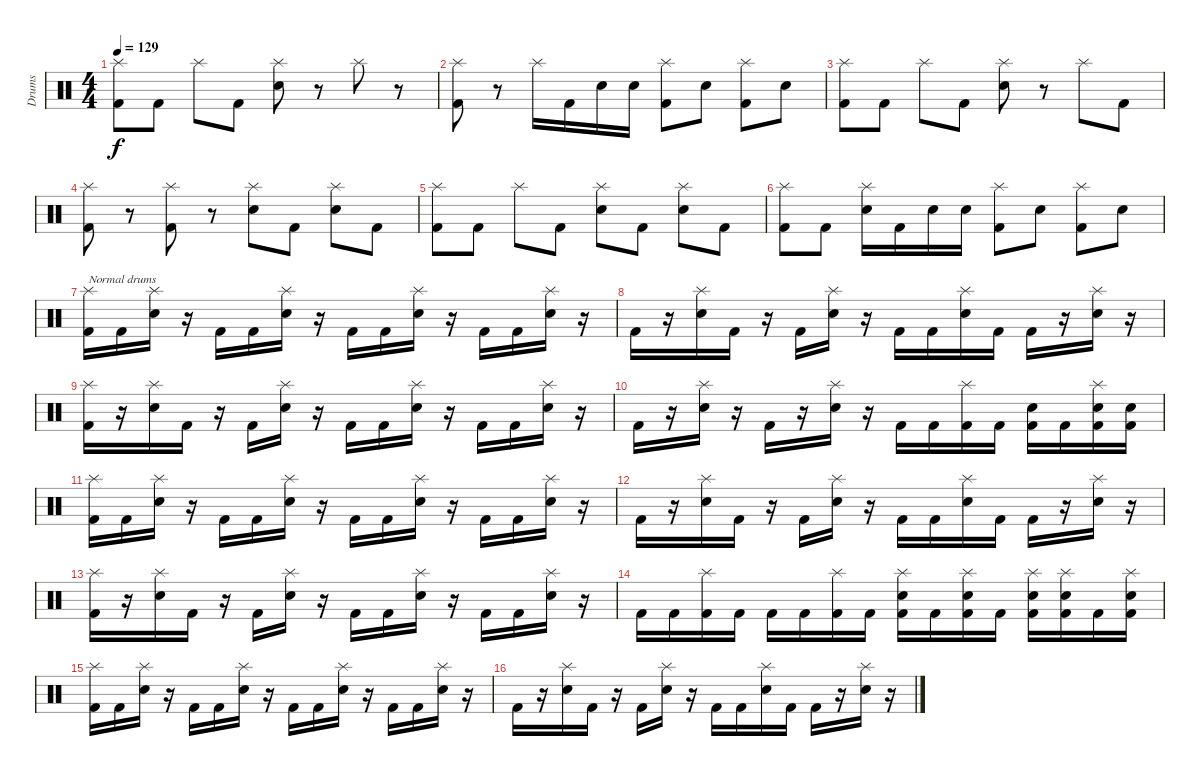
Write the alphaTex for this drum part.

\track ("Drums" "Drums") {instrument percussion}
\staff {score}
\articulation defaults
\ts (4 4)
\tempo 129
\clef neutral
\ks c
("Splash (hit)" "Kick (hit) 2").8{dy f} "Kick (hit) 2".8 "Splash (hit)".8 "Kick (hit) 2".8 ("Snare (hit) 2" "Splash (hit)").8 r.8 "Splash (hit)".8 r.8 |
("Splash (hit)" "Kick (hit) 2").8 r.8 "Splash (hit)".16 "Kick (hit) 2".16 "Snare (hit) 2".16 "Snare (hit) 2".16 ("Splash (hit)" "Kick (hit) 2").8 "Snare (hit) 2".8 ("Splash (hit)" "Kick (hit) 2").8 "Snare (hit) 2".8 |
("Splash (hit)" "Kick (hit) 2").8 "Kick (hit) 2".8 "Splash (hit)".8 "Kick (hit) 2".8 ("Snare (hit) 2" "Splash (hit)").8 r.8 "Splash (hit)".8 "Kick (hit) 2".8 |
("Splash (hit)" "Kick (hit) 2").8 r.8 ("Splash (hit)" "Kick (hit) 2").8 r.8 ("Snare (hit) 2" "Splash (hit)").8 "Kick (hit) 2".8 ("Snare (hit) 2" "Splash (hit)").8 "Kick (hit) 2".8 |
("Splash (hit)" "Kick (hit) 2").8 "Kick (hit) 2".8 "Splash (hit)".8 "Kick (hit) 2".8 ("Snare (hit) 2" "Splash (hit)").8 "Kick (hit) 2".8 ("Snare (hit) 2" "Splash (hit)").8 "Kick (hit) 2".8 |
("Splash (hit)" "Kick (hit) 2").8 "Kick (hit) 2".8 ("Snare (hit) 2" "Splash (hit)").16 "Kick (hit) 2".16 "Snare (hit) 2".16 "Snare (hit) 2".16 ("Splash (hit)" "Kick (hit) 2").8 "Snare (hit) 2".8 ("Splash (hit)" "Kick (hit) 2").8 "Snare (hit) 2".8 |
("Splash (hit)" "Kick (hit) 2").16{txt "Normal drums"} "Kick (hit) 2".16 ("Snare (hit) 2" "Splash (hit)").16 r.16 "Kick (hit) 2".16 "Kick (hit) 2".16 ("Snare (hit) 2" "Splash (hit)").16 r.16 "Kick (hit) 2".16 "Kick (hit) 2".16 ("Snare (hit) 2" "Splash (hit)").16 r.16 "Kick (hit) 2".16 "Kick (hit) 2".16 ("Snare (hit) 2" "Splash (hit)").16 r.16 |
"Kick (hit) 2".16 r.16 ("Snare (hit) 2" "Splash (hit)").16 "Kick (hit) 2".16 r.16 "Kick (hit) 2".16 ("Snare (hit) 2" "Splash (hit)").16 r.16 "Kick (hit) 2".16 "Kick (hit) 2".16 ("Snare (hit) 2" "Splash (hit)").16 "Kick (hit) 2".16 "Kick (hit) 2".16 r.16 ("Snare (hit) 2" "Splash (hit)").16 r.16 |
("Splash (hit)" "Kick (hit) 2").16 r.16 ("Snare (hit) 2" "Splash (hit)").16 "Kick (hit) 2".16 r.16 "Kick (hit) 2".16 ("Snare (hit) 2" "Splash (hit)").16 r.16 "Kick (hit) 2".16 "Kick (hit) 2".16 ("Snare (hit) 2" "Splash (hit)").16 r.16 "Kick (hit) 2".16 "Kick (hit) 2".16 ("Snare (hit) 2" "Splash (hit)").16 r.16 |
"Kick (hit) 2".16 r.16 ("Snare (hit) 2" "Splash (hit)").16 r.16 "Kick (hit) 2".16 r.16 ("Snare (hit) 2" "Splash (hit)").16 r.16 "Kick (hit) 2".16 "Kick (hit) 2".16 ("Splash (hit)" "Kick (hit) 2").16 "Kick (hit) 2".16 ("Snare (hit) 2" "Kick (hit) 2").16 "Kick (hit) 2".16 ("Snare (hit) 2" "Splash (hit)" "Kick (hit) 2").16 ("Snare (hit) 2" "Kick (hit) 2").16 |
("Splash (hit)" "Kick (hit) 2").16 "Kick (hit) 2".16 ("Snare (hit) 2" "Splash (hit)").16 r.16 "Kick (hit) 2".16 "Kick (hit) 2".16 ("Snare (hit) 2" "Splash (hit)").16 r.16 "Kick (hit) 2".16 "Kick (hit) 2".16 ("Snare (hit) 2" "Splash (hit)").16 r.16 "Kick (hit) 2".16 "Kick (hit) 2".16 ("Snare (hit) 2" "Splash (hit)").16 r.16 |
"Kick (hit) 2".16 r.16 ("Snare (hit) 2" "Splash (hit)").16 "Kick (hit) 2".16 r.16 "Kick (hit) 2".16 ("Snare (hit) 2" "Splash (hit)").16 r.16 "Kick (hit) 2".16 "Kick (hit) 2".16 ("Snare (hit) 2" "Splash (hit)").16 "Kick (hit) 2".16 "Kick (hit) 2".16 r.16 ("Snare (hit) 2" "Splash (hit)").16 r.16 |
("Splash (hit)" "Kick (hit) 2").16 r.16 ("Snare (hit) 2" "Splash (hit)").16 "Kick (hit) 2".16 r.16 "Kick (hit) 2".16 ("Snare (hit) 2" "Splash (hit)").16 r.16 "Kick (hit) 2".16 "Kick (hit) 2".16 ("Snare (hit) 2" "Splash (hit)").16 r.16 "Kick (hit) 2".16 "Kick (hit) 2".16 ("Snare (hit) 2" "Splash (hit)").16 r.16 |
"Kick (hit) 2".16 "Kick (hit) 2".16 ("Splash (hit)" "Kick (hit) 2").16 "Kick (hit) 2".16 "Kick (hit) 2".16 "Kick (hit) 2".16 ("Splash (hit)" "Kick (hit) 2").16 "Kick (hit) 2".16 ("Snare (hit) 2" "Splash (hit)" "Kick (hit) 2").16 "Kick (hit) 2".16 ("Snare (hit) 2" "Splash (hit)" "Kick (hit) 2").16 "Kick (hit) 2".16 ("Snare (hit) 2" "Splash (hit)" "Kick (hit) 2").16 ("Snare (hit) 2" "Splash (hit)" "Kick (hit) 2").16 "Kick (hit) 2".16 ("Snare (hit) 2" "Splash (hit)" "Kick (hit) 2").16 |
("Splash (hit)" "Kick (hit) 2").16 "Kick (hit) 2".16 ("Snare (hit) 2" "Splash (hit)").16 r.16 "Kick (hit) 2".16 "Kick (hit) 2".16 ("Snare (hit) 2" "Splash (hit)").16 r.16 "Kick (hit) 2".16 "Kick (hit) 2".16 ("Snare (hit) 2" "Splash (hit)").16 r.16 "Kick (hit) 2".16 "Kick (hit) 2".16 ("Snare (hit) 2" "Splash (hit)").16 r.16 |
"Kick (hit) 2".16 r.16 ("Snare (hit) 2" "Splash (hit)").16 "Kick (hit) 2".16 r.16 "Kick (hit) 2".16 ("Snare (hit) 2" "Splash (hit)").16 r.16 "Kick (hit) 2".16 "Kick (hit) 2".16 ("Snare (hit) 2" "Splash (hit)").16 "Kick (hit) 2".16 "Kick (hit) 2".16 r.16 ("Snare (hit) 2" "Splash (hit)").16 r.16
